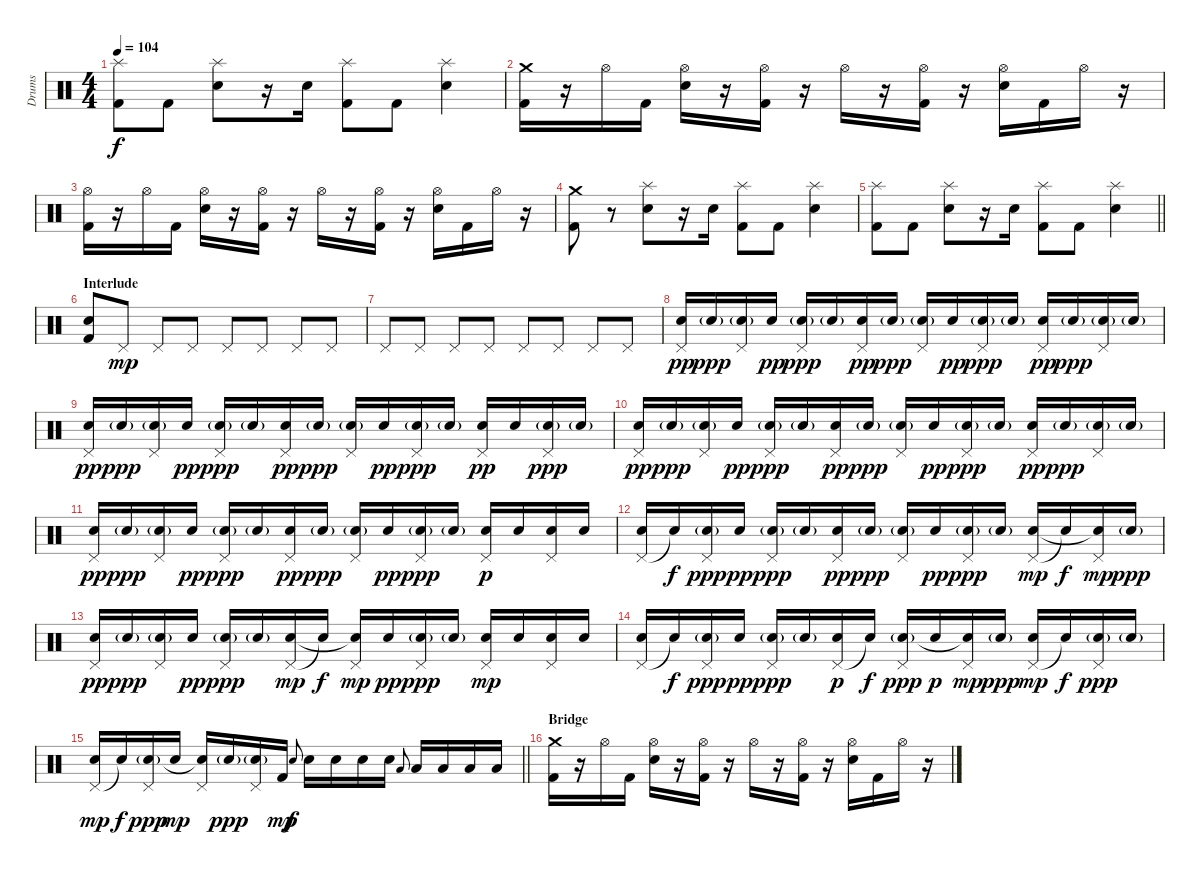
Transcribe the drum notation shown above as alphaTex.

\track ("Drums" "Drums") {instrument percussion}
\staff {score}
\articulation defaults
\ts (4 4)
\tempo 104
\clef neutral
\ks c
("Splash (hit)" "Kick (hit) 2").8{dy f} "Kick (hit) 2".8 ("Splash (hit)" "Snare (hit) 2").8 r.16 "Snare (hit) 2".16 ("Splash (hit)" "Kick (hit) 2").8 "Kick (hit) 2".8 ("Splash (hit)" "Snare (hit) 2").4 |
("Crash medium (hit)" "Kick (hit) 2").16 r.16 "Hi-Hat (open)".16 "Kick (hit) 2".16 ("Hi-Hat (open)" "Snare (hit) 2").16 r.16 ("Hi-Hat (open)" "Kick (hit) 2").16 r.16 "Hi-Hat (open)".16 r.16 ("Hi-Hat (open)" "Kick (hit) 2").16 r.16 ("Hi-Hat (open)" "Snare (hit) 2").16 "Kick (hit) 2".16 "Hi-Hat (open)".16 r.16 |
("Hi-Hat (open)" "Kick (hit) 2").16 r.16 "Hi-Hat (open)".16 "Kick (hit) 2".16 ("Hi-Hat (open)" "Snare (hit) 2").16 r.16 ("Hi-Hat (open)" "Kick (hit) 2").16 r.16 "Hi-Hat (open)".16 r.16 ("Hi-Hat (open)" "Kick (hit) 2").16 r.16 ("Hi-Hat (open)" "Snare (hit) 2").16 "Kick (hit) 2".16 "Hi-Hat (open)".16 r.16 |
("Crash medium (hit)" "Kick (hit) 2").8 r.8 ("Splash (hit)" "Snare (hit) 2").8 r.16 "Snare (hit) 2".16 ("Splash (hit)" "Kick (hit) 2").8 "Kick (hit) 2".8 ("Splash (hit)" "Snare (hit) 2").4 |
\barLineRight lightlight
("Splash (hit)" "Kick (hit) 2").8 "Kick (hit) 2".8 ("Splash (hit)" "Snare (hit) 2").8 r.16 "Snare (hit) 2".16 ("Splash (hit)" "Kick (hit) 2").8 "Kick (hit) 2".8 ("Splash (hit)" "Snare (hit) 2").4 |
\section ("" "Interlude")
("Snare (hit) 2" "Kick (hit) 2").8 "Pedal Hi-Hat (hit)".8{dy mp} "Pedal Hi-Hat (hit)".8 "Pedal Hi-Hat (hit)".8 "Pedal Hi-Hat (hit)".8 "Pedal Hi-Hat (hit)".8 "Pedal Hi-Hat (hit)".8 "Pedal Hi-Hat (hit)".8 |
"Pedal Hi-Hat (hit)".8 "Pedal Hi-Hat (hit)".8 "Pedal Hi-Hat (hit)".8 "Pedal Hi-Hat (hit)".8 "Pedal Hi-Hat (hit)".8 "Pedal Hi-Hat (hit)".8 "Pedal Hi-Hat (hit)".8 "Pedal Hi-Hat (hit)".8 |
("Pedal Hi-Hat (hit)" "Snare (hit) 2").16{dy pp} "Snare (hit) 2"{g}.16{dy ppp} ("Pedal Hi-Hat (hit)" "Snare (hit) 2"{g}).16 "Snare (hit) 2".16{dy pp} ("Pedal Hi-Hat (hit)" "Snare (hit) 2"{g}).16{dy ppp} "Snare (hit) 2"{g}.16 ("Pedal Hi-Hat (hit)" "Snare (hit) 2").16{dy pp} "Snare (hit) 2"{g}.16{dy ppp} ("Pedal Hi-Hat (hit)" "Snare (hit) 2"{g}).16 "Snare (hit) 2".16{dy pp} ("Pedal Hi-Hat (hit)" "Snare (hit) 2"{g}).16{dy ppp} "Snare (hit) 2"{g}.16 ("Pedal Hi-Hat (hit)" "Snare (hit) 2").16{dy pp} "Snare (hit) 2"{g}.16{dy ppp} ("Pedal Hi-Hat (hit)" "Snare (hit) 2"{g}).16 "Snare (hit) 2"{g}.16 |
("Pedal Hi-Hat (hit)" "Snare (hit) 2").16{dy pp} "Snare (hit) 2"{g}.16{dy ppp} ("Pedal Hi-Hat (hit)" "Snare (hit) 2"{g}).16 "Snare (hit) 2".16{dy pp} ("Pedal Hi-Hat (hit)" "Snare (hit) 2"{g}).16{dy ppp} "Snare (hit) 2"{g}.16 ("Pedal Hi-Hat (hit)" "Snare (hit) 2").16{dy pp} "Snare (hit) 2"{g}.16{dy ppp} ("Pedal Hi-Hat (hit)" "Snare (hit) 2"{g}).16 "Snare (hit) 2".16{dy pp} ("Pedal Hi-Hat (hit)" "Snare (hit) 2"{g}).16{dy ppp} "Snare (hit) 2"{g}.16 ("Pedal Hi-Hat (hit)" "Snare (hit) 2").16{dy pp} "Snare (hit) 2".16 ("Pedal Hi-Hat (hit)" "Snare (hit) 2"{g}).16{dy ppp} "Snare (hit) 2"{g}.16 |
("Pedal Hi-Hat (hit)" "Snare (hit) 2").16{dy pp} "Snare (hit) 2"{g}.16{dy ppp} ("Pedal Hi-Hat (hit)" "Snare (hit) 2"{g}).16 "Snare (hit) 2".16{dy pp} ("Pedal Hi-Hat (hit)" "Snare (hit) 2"{g}).16{dy ppp} "Snare (hit) 2"{g}.16 ("Pedal Hi-Hat (hit)" "Snare (hit) 2").16{dy pp} "Snare (hit) 2"{g}.16{dy ppp} ("Pedal Hi-Hat (hit)" "Snare (hit) 2"{g}).16 "Snare (hit) 2".16{dy pp} ("Pedal Hi-Hat (hit)" "Snare (hit) 2"{g}).16{dy ppp} "Snare (hit) 2"{g}.16 ("Pedal Hi-Hat (hit)" "Snare (hit) 2").16{dy pp} "Snare (hit) 2"{g}.16{dy ppp} ("Pedal Hi-Hat (hit)" "Snare (hit) 2"{g}).16 "Snare (hit) 2"{g}.16 |
("Pedal Hi-Hat (hit)" "Snare (hit) 2").16{dy pp} "Snare (hit) 2"{g}.16{dy ppp} ("Pedal Hi-Hat (hit)" "Snare (hit) 2"{g}).16 "Snare (hit) 2".16{dy pp} ("Pedal Hi-Hat (hit)" "Snare (hit) 2"{g}).16{dy ppp} "Snare (hit) 2"{g}.16 ("Pedal Hi-Hat (hit)" "Snare (hit) 2").16{dy pp} "Snare (hit) 2"{g}.16{dy ppp} ("Pedal Hi-Hat (hit)" "Snare (hit) 2"{g}).16 "Snare (hit) 2".16{dy pp} ("Pedal Hi-Hat (hit)" "Snare (hit) 2"{g}).16{dy ppp} "Snare (hit) 2"{g}.16 ("Pedal Hi-Hat (hit)" "Snare (hit) 2").16{dy p} "Snare (hit) 2".16 ("Pedal Hi-Hat (hit)" "Snare (hit) 2").16 "Snare (hit) 2".16 |
("Pedal Hi-Hat (hit)" "Snare (hit) 2").16 "Snare (hit) 2"{t}.16{dy f} ("Pedal Hi-Hat (hit)" "Snare (hit) 2"{g}).16{dy ppp} "Snare (hit) 2".16{dy pp} ("Pedal Hi-Hat (hit)" "Snare (hit) 2"{g}).16{dy ppp} "Snare (hit) 2"{g}.16 ("Pedal Hi-Hat (hit)" "Snare (hit) 2").16{dy pp} "Snare (hit) 2"{g}.16{dy ppp} ("Pedal Hi-Hat (hit)" "Snare (hit) 2"{g}).16 "Snare (hit) 2".16{dy pp} ("Pedal Hi-Hat (hit)" "Snare (hit) 2"{g}).16{dy ppp} "Snare (hit) 2"{g}.16 ("Pedal Hi-Hat (hit)" "Snare (hit) 2").16{dy mp} "Snare (hit) 2"{t}.16{dy f} ("Pedal Hi-Hat (hit)" "Snare (hit) 2"{t}).16{dy mp} "Snare (hit) 2"{g}.16{dy ppp} |
("Pedal Hi-Hat (hit)" "Snare (hit) 2").16{dy pp} "Snare (hit) 2"{g}.16{dy ppp} ("Pedal Hi-Hat (hit)" "Snare (hit) 2"{g}).16 "Snare (hit) 2".16{dy pp} ("Pedal Hi-Hat (hit)" "Snare (hit) 2"{g}).16{dy ppp} "Snare (hit) 2"{g}.16 ("Pedal Hi-Hat (hit)" "Snare (hit) 2").16{dy mp} "Snare (hit) 2"{t}.16{dy f} ("Pedal Hi-Hat (hit)" "Snare (hit) 2"{t}).16{dy mp} "Snare (hit) 2".16{dy pp} ("Pedal Hi-Hat (hit)" "Snare (hit) 2"{g}).16{dy ppp} "Snare (hit) 2"{g}.16 ("Pedal Hi-Hat (hit)" "Snare (hit) 2").16{dy mp} "Snare (hit) 2".16 ("Pedal Hi-Hat (hit)" "Snare (hit) 2").16 "Snare (hit) 2".16 |
("Pedal Hi-Hat (hit)" "Snare (hit) 2").16 "Snare (hit) 2"{t}.16{dy f} ("Pedal Hi-Hat (hit)" "Snare (hit) 2"{g}).16{dy ppp} "Snare (hit) 2".16{dy pp} ("Pedal Hi-Hat (hit)" "Snare (hit) 2"{g}).16{dy ppp} "Snare (hit) 2"{g}.16 ("Pedal Hi-Hat (hit)" "Snare (hit) 2").16{dy p} "Snare (hit) 2"{t}.16{dy f} ("Pedal Hi-Hat (hit)" "Snare (hit) 2"{g}).16{dy ppp} "Snare (hit) 2".16{dy p} ("Pedal Hi-Hat (hit)" "Snare (hit) 2"{t}).16{dy mp} "Snare (hit) 2"{g}.16{dy ppp} ("Pedal Hi-Hat (hit)" "Snare (hit) 2").16{dy mp} "Snare (hit) 2"{t}.16{dy f} ("Pedal Hi-Hat (hit)" "Snare (hit) 2"{g}).16{dy ppp} "Snare (hit) 2"{g}.16 |
\barLineRight lightlight
("Pedal Hi-Hat (hit)" "Snare (hit) 2").16{dy mp} "Snare (hit) 2"{t}.16{dy f} ("Pedal Hi-Hat (hit)" "Snare (hit) 2"{g}).16{dy ppp} "Snare (hit) 2".16{dy mp} ("Pedal Hi-Hat (hit)" "Snare (hit) 2"{t}).16 "Snare (hit) 2"{g}.16{dy ppp} ("Pedal Hi-Hat (hit)" "Snare (hit) 2"{g}).16 "Kick (hit) 2".16{dy mp} "Snare (hit) 2".8{gr onbeat dy f} "Snare (hit) 2".16 "Snare (hit) 2".16 "Snare (hit) 2".16 "Snare (hit) 2".16 "Low Tom (hit)".8{gr onbeat} "Low Tom (hit)".16 "Low Tom (hit)".16 "Low Tom (hit)".16 "Low Tom (hit)".16 |
\section ("" "Bridge")
("Crash medium (hit)" "Kick (hit) 2").16 r.16 "Hi-Hat (open)".16 "Kick (hit) 2".16 ("Hi-Hat (open)" "Snare (hit) 2").16 r.16 ("Hi-Hat (open)" "Kick (hit) 2").16 r.16 "Hi-Hat (open)".16 r.16 ("Hi-Hat (open)" "Kick (hit) 2").16 r.16 ("Hi-Hat (open)" "Snare (hit) 2").16 "Kick (hit) 2".16 "Hi-Hat (open)".16 r.16
